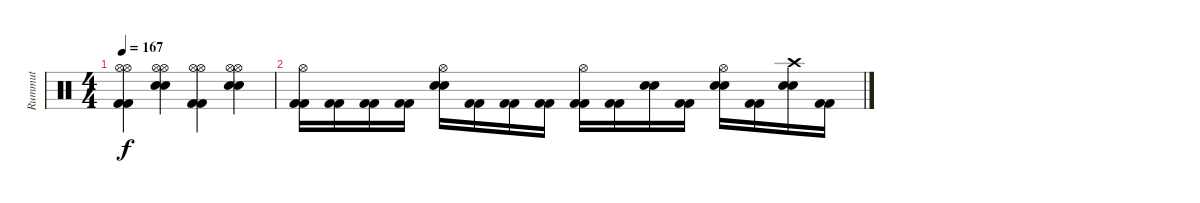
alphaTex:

\track ("Rummut" "Rummut") {instrument percussion}
\staff {score}
\articulation defaults
\ts (4 4)
\tempo 167
\clef neutral
\ks c
("Hi-Hat (open)" "Kick (hit) 2" "Kick (hit) 2" "Hi-Hat (open)").4{dy f} ("Hi-Hat (open)" "Snare (hit) 2" "Snare (hit) 2" "Hi-Hat (open)").4 ("Hi-Hat (open)" "Kick (hit) 2" "Kick (hit) 2" "Hi-Hat (open)").4 ("Hi-Hat (open)" "Snare (hit) 2" "Snare (hit) 2" "Hi-Hat (open)").4 |
("Hi-Hat (open)" "Kick (hit) 2" "Kick (hit) 2").16 ("Kick (hit) 2" "Kick (hit) 2").16 ("Kick (hit) 2" "Kick (hit) 2").16 ("Kick (hit) 2" "Kick (hit) 2").16 ("Hi-Hat (open)" "Snare (hit) 2" "Snare (hit) 2").16 ("Kick (hit) 2" "Kick (hit) 2").16 ("Kick (hit) 2" "Kick (hit) 2").16 ("Kick (hit) 2" "Kick (hit) 2").16 ("Hi-Hat (open)" "Kick (hit) 2" "Kick (hit) 2").16 ("Kick (hit) 2" "Kick (hit) 2").16 ("Snare (hit) 2" "Snare (hit) 2").16 ("Kick (hit) 2" "Kick (hit) 2").16 ("Hi-Hat (open)" "Snare (hit) 2" "Snare (hit) 2").16 ("Kick (hit) 2" "Kick (hit) 2").16 ("Crash high (hit)" "Snare (hit) 2" "Snare (hit) 2").16 ("Kick (hit) 2" "Kick (hit) 2").16
